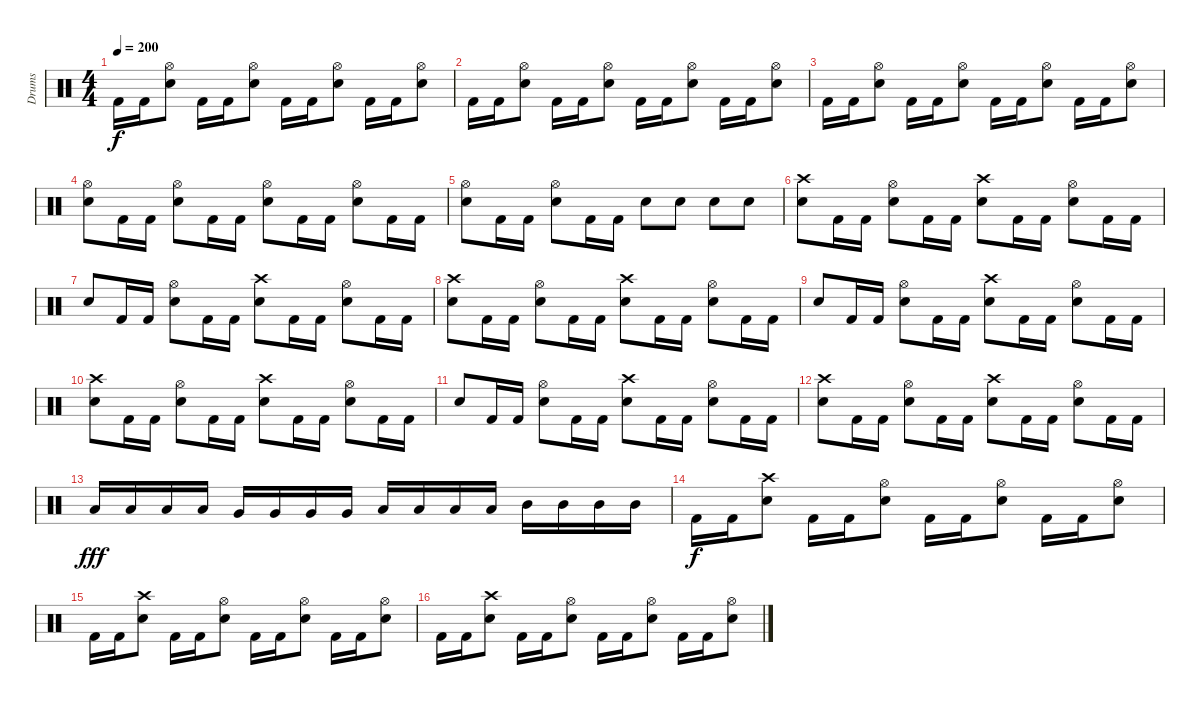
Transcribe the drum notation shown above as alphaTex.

\track ("Drums" "Drums") {instrument percussion}
\staff {score}
\articulation defaults
\ts (4 4)
\tempo 200
\clef neutral
\ks c "Kick (hit) 2".16{dy f} "Kick (hit) 2".16
("Hi-Hat (open)" "Snare (hit) 2").8 "Kick (hit) 2".16 "Kick (hit) 2".16 ("Hi-Hat (open)" "Snare (hit) 2").8 "Kick (hit) 2".16 "Kick (hit) 2".16 ("Hi-Hat (open)" "Snare (hit) 2").8 "Kick (hit) 2".16 "Kick (hit) 2".16 ("Hi-Hat (open)" "Snare (hit) 2").8 |
"Kick (hit) 2".16 "Kick (hit) 2".16 ("Hi-Hat (open)" "Snare (hit) 2").8 "Kick (hit) 2".16 "Kick (hit) 2".16 ("Hi-Hat (open)" "Snare (hit) 2").8 "Kick (hit) 2".16 "Kick (hit) 2".16 ("Hi-Hat (open)" "Snare (hit) 2").8 "Kick (hit) 2".16 "Kick (hit) 2".16 ("Hi-Hat (open)" "Snare (hit) 2").8 |
"Kick (hit) 2".16 "Kick (hit) 2".16 ("Hi-Hat (open)" "Snare (hit) 2").8 "Kick (hit) 2".16 "Kick (hit) 2".16 ("Hi-Hat (open)" "Snare (hit) 2").8 "Kick (hit) 2".16 "Kick (hit) 2".16 ("Hi-Hat (open)" "Snare (hit) 2").8 "Kick (hit) 2".16 "Kick (hit) 2".16 ("Hi-Hat (open)" "Snare (hit) 2").8 |
("Hi-Hat (open)" "Snare (hit) 2").8 "Kick (hit) 2".16 "Kick (hit) 2".16 ("Hi-Hat (open)" "Snare (hit) 2").8 "Kick (hit) 2".16 "Kick (hit) 2".16 ("Hi-Hat (open)" "Snare (hit) 2").8 "Kick (hit) 2".16 "Kick (hit) 2".16 ("Hi-Hat (open)" "Snare (hit) 2").8 "Kick (hit) 2".16 "Kick (hit) 2".16 |
("Hi-Hat (open)" "Snare (hit) 2").8 "Kick (hit) 2".16 "Kick (hit) 2".16 ("Hi-Hat (open)" "Snare (hit) 2").8 "Kick (hit) 2".16 "Kick (hit) 2".16 "Snare (hit) 2".8 "Snare (hit) 2".8 "Snare (hit) 2".8 "Snare (hit) 2".8 |
("Crash high (hit)" "Snare (hit) 2").8 "Kick (hit) 2".16 "Kick (hit) 2".16 ("Hi-Hat (open)" "Snare (hit) 2").8 "Kick (hit) 2".16 "Kick (hit) 2".16 ("Crash high (hit)" "Snare (hit) 2").8 "Kick (hit) 2".16 "Kick (hit) 2".16 ("Hi-Hat (open)" "Snare (hit) 2").8 "Kick (hit) 2".16 "Kick (hit) 2".16 |
"Snare (hit) 2".8 "Kick (hit) 2".16 "Kick (hit) 2".16 ("Hi-Hat (open)" "Snare (hit) 2").8 "Kick (hit) 2".16 "Kick (hit) 2".16 ("Crash high (hit)" "Snare (hit) 2").8 "Kick (hit) 2".16 "Kick (hit) 2".16 ("Hi-Hat (open)" "Snare (hit) 2").8 "Kick (hit) 2".16 "Kick (hit) 2".16 |
("Crash high (hit)" "Snare (hit) 2").8 "Kick (hit) 2".16 "Kick (hit) 2".16 ("Hi-Hat (open)" "Snare (hit) 2").8 "Kick (hit) 2".16 "Kick (hit) 2".16 ("Crash high (hit)" "Snare (hit) 2").8 "Kick (hit) 2".16 "Kick (hit) 2".16 ("Hi-Hat (open)" "Snare (hit) 2").8 "Kick (hit) 2".16 "Kick (hit) 2".16 |
"Snare (hit) 2".8 "Kick (hit) 2".16 "Kick (hit) 2".16 ("Hi-Hat (open)" "Snare (hit) 2").8 "Kick (hit) 2".16 "Kick (hit) 2".16 ("Crash high (hit)" "Snare (hit) 2").8 "Kick (hit) 2".16 "Kick (hit) 2".16 ("Hi-Hat (open)" "Snare (hit) 2").8 "Kick (hit) 2".16 "Kick (hit) 2".16 |
("Crash high (hit)" "Snare (hit) 2").8 "Kick (hit) 2".16 "Kick (hit) 2".16 ("Hi-Hat (open)" "Snare (hit) 2").8 "Kick (hit) 2".16 "Kick (hit) 2".16 ("Crash high (hit)" "Snare (hit) 2").8 "Kick (hit) 2".16 "Kick (hit) 2".16 ("Hi-Hat (open)" "Snare (hit) 2").8 "Kick (hit) 2".16 "Kick (hit) 2".16 |
"Snare (hit) 2".8 "Kick (hit) 2".16 "Kick (hit) 2".16 ("Hi-Hat (open)" "Snare (hit) 2").8 "Kick (hit) 2".16 "Kick (hit) 2".16 ("Crash high (hit)" "Snare (hit) 2").8 "Kick (hit) 2".16 "Kick (hit) 2".16 ("Hi-Hat (open)" "Snare (hit) 2").8 "Kick (hit) 2".16 "Kick (hit) 2".16 |
("Crash high (hit)" "Snare (hit) 2").8 "Kick (hit) 2".16 "Kick (hit) 2".16 ("Hi-Hat (open)" "Snare (hit) 2").8 "Kick (hit) 2".16 "Kick (hit) 2".16 ("Crash high (hit)" "Snare (hit) 2").8 "Kick (hit) 2".16 "Kick (hit) 2".16 ("Hi-Hat (open)" "Snare (hit) 2").8 "Kick (hit) 2".16 "Kick (hit) 2".16 |
"Low Floor Tom (hit)".16{dy fff} "Low Floor Tom (hit)".16 "Low Floor Tom (hit)".16 "Low Floor Tom (hit)".16 "Very Low Tom (hit)".16 "Very Low Tom (hit)".16 "Very Low Tom (hit)".16 "Very Low Tom (hit)".16 "Low Tom (hit)".16 "Low Tom (hit)".16 "Low Tom (hit)".16 "Low Tom (hit)".16 "Mid Tom (hit)".16 "Mid Tom (hit)".16 "Mid Tom (hit)".16 "Mid Tom (hit)".16 |
"Kick (hit) 2".16{dy f} "Kick (hit) 2".16 ("Crash high (hit)" "Snare (hit) 2").8 "Kick (hit) 2".16 "Kick (hit) 2".16 ("Hi-Hat (open)" "Snare (hit) 2").8 "Kick (hit) 2".16 "Kick (hit) 2".16 ("Hi-Hat (open)" "Snare (hit) 2").8 "Kick (hit) 2".16 "Kick (hit) 2".16 ("Hi-Hat (open)" "Snare (hit) 2").8 |
"Kick (hit) 2".16 "Kick (hit) 2".16 ("Crash high (hit)" "Snare (hit) 2").8 "Kick (hit) 2".16 "Kick (hit) 2".16 ("Hi-Hat (open)" "Snare (hit) 2").8 "Kick (hit) 2".16 "Kick (hit) 2".16 ("Hi-Hat (open)" "Snare (hit) 2").8 "Kick (hit) 2".16 "Kick (hit) 2".16 ("Hi-Hat (open)" "Snare (hit) 2").8 |
"Kick (hit) 2".16 "Kick (hit) 2".16 ("Crash high (hit)" "Snare (hit) 2").8 "Kick (hit) 2".16 "Kick (hit) 2".16 ("Hi-Hat (open)" "Snare (hit) 2").8 "Kick (hit) 2".16 "Kick (hit) 2".16 ("Hi-Hat (open)" "Snare (hit) 2").8 "Kick (hit) 2".16 "Kick (hit) 2".16 ("Hi-Hat (open)" "Snare (hit) 2").8
